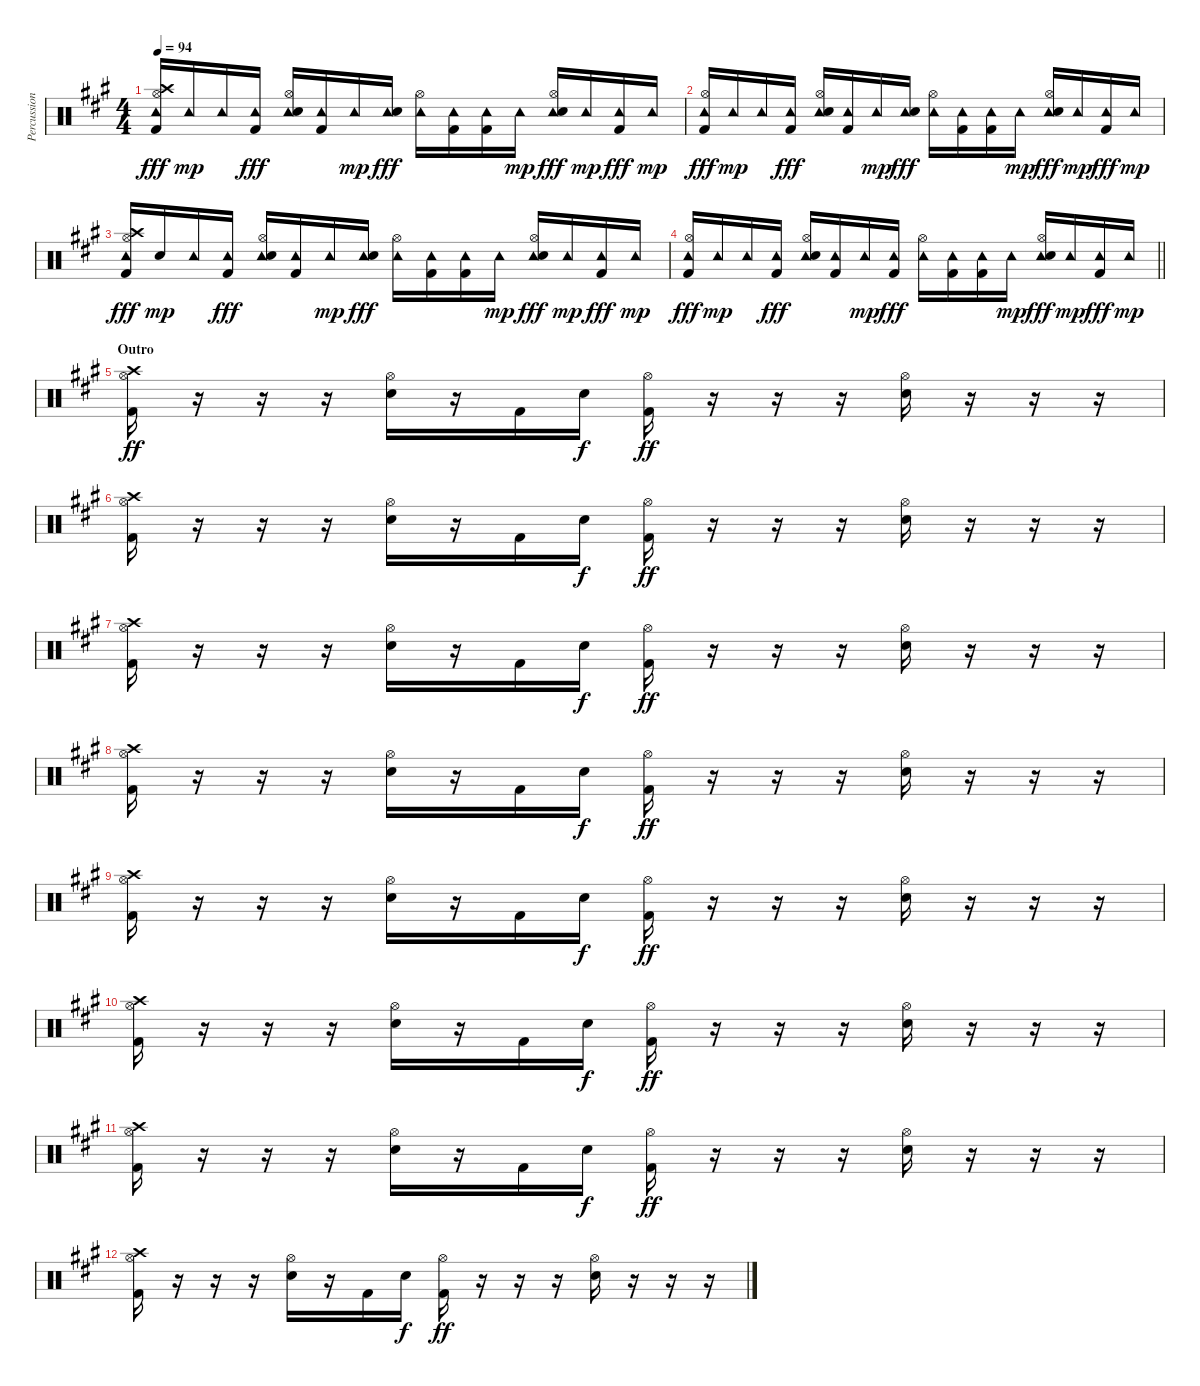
\track ("Percussion" "Percussion") {instrument percussion}
\staff {score}
\articulation defaults
\ts (4 4)
\tempo 94
\clef neutral
\ks a
("Tambourine (hit)" "Hi-Hat (open)" "Crash high (hit)" "Kick (hit) 2").16{dy fff} "Tambourine (hit)".16{dy mp} "Tambourine (hit)".16 ("Tambourine (hit)" "Kick (hit) 2").16{dy fff} ("Tambourine (hit)" "Hi-Hat (open)" "Snare (hit) 2").16 ("Tambourine (hit)" "Kick (hit) 2").16 "Tambourine (hit)".16{dy mp} ("Tambourine (hit)" "Snare (hit) 2").16{dy fff} ("Tambourine (hit)" "Hi-Hat (open)").16 ("Tambourine (hit)" "Kick (hit) 2").16 ("Tambourine (hit)" "Kick (hit) 2").16 "Tambourine (hit)".16{dy mp} ("Tambourine (hit)" "Hi-Hat (open)" "Snare (hit) 2").16{dy fff} "Tambourine (hit)".16{dy mp} ("Tambourine (hit)" "Kick (hit) 2").16{dy fff} "Tambourine (hit)".16{dy mp} |
("Tambourine (hit)" "Hi-Hat (open)" "Kick (hit) 2").16{dy fff} "Tambourine (hit)".16{dy mp} "Tambourine (hit)".16 ("Tambourine (hit)" "Kick (hit) 2").16{dy fff} ("Tambourine (hit)" "Hi-Hat (open)" "Snare (hit) 2").16 ("Tambourine (hit)" "Kick (hit) 2").16 "Tambourine (hit)".16{dy mp} ("Tambourine (hit)" "Snare (hit) 2").16{dy fff} ("Tambourine (hit)" "Hi-Hat (open)").16 ("Tambourine (hit)" "Kick (hit) 2").16 ("Tambourine (hit)" "Kick (hit) 2").16 "Tambourine (hit)".16{dy mp} ("Tambourine (hit)" "Hi-Hat (open)" "Snare (hit) 2").16{dy fff} "Tambourine (hit)".16{dy mp} ("Tambourine (hit)" "Kick (hit) 2").16{dy fff} "Tambourine (hit)".16{dy mp} |
("Tambourine (hit)" "Hi-Hat (open)" "Crash high (hit)" "Kick (hit) 2").16{dy fff} "Snare (hit)".16{dy mp} "Tambourine (hit)".16 ("Tambourine (hit)" "Kick (hit) 2").16{dy fff} ("Tambourine (hit)" "Hi-Hat (open)" "Snare (hit) 2").16 ("Tambourine (hit)" "Kick (hit) 2").16 "Tambourine (hit)".16{dy mp} ("Tambourine (hit)" "Snare (hit) 2").16{dy fff} ("Tambourine (hit)" "Hi-Hat (open)").16 ("Tambourine (hit)" "Kick (hit) 2").16 ("Tambourine (hit)" "Kick (hit) 2").16 "Tambourine (hit)".16{dy mp} ("Tambourine (hit)" "Hi-Hat (open)" "Snare (hit) 2").16{dy fff} "Tambourine (hit)".16{dy mp} ("Tambourine (hit)" "Kick (hit) 2").16{dy fff} "Tambourine (hit)".16{dy mp} |
\barLineRight lightlight
("Tambourine (hit)" "Hi-Hat (open)" "Kick (hit) 2").16{dy fff} "Tambourine (hit)".16{dy mp} "Tambourine (hit)".16 ("Tambourine (hit)" "Kick (hit) 2").16{dy fff} ("Tambourine (hit)" "Hi-Hat (open)" "Snare (hit) 2").16 ("Tambourine (hit)" "Kick (hit) 2").16 "Tambourine (hit)".16{dy mp} ("Tambourine (hit)" "Kick (hit) 2").16{dy fff} ("Tambourine (hit)" "Hi-Hat (open)").16 ("Tambourine (hit)" "Kick (hit) 2").16 ("Tambourine (hit)" "Kick (hit) 2").16 "Tambourine (hit)".16{dy mp} ("Tambourine (hit)" "Hi-Hat (open)" "Snare (hit) 2").16{dy fff} "Tambourine (hit)".16{dy mp} ("Tambourine (hit)" "Kick (hit) 2").16{dy fff} "Tambourine (hit)".16{dy mp} |
\section ("" "Outro")
("Crash high (hit)" "Hi-Hat (open)" "Kick (hit) 2").16{dy ff} r.16 r.16 r.16 ("Hi-Hat (open)" "Snare (hit) 2").16 r.16 "Kick (hit) 2".16 "Snare (hit) 2".16{dy f} ("Hi-Hat (open)" "Kick (hit) 2").16{dy ff} r.16 r.16 r.16 ("Hi-Hat (open)" "Snare (hit) 2").16 r.16 r.16 r.16 |
("Crash high (hit)" "Hi-Hat (open)" "Kick (hit) 2").16 r.16 r.16 r.16 ("Hi-Hat (open)" "Snare (hit) 2").16 r.16 "Kick (hit) 2".16 "Snare (hit) 2".16{dy f} ("Hi-Hat (open)" "Kick (hit) 2").16{dy ff} r.16 r.16 r.16 ("Hi-Hat (open)" "Snare (hit) 2").16 r.16 r.16 r.16 |
("Crash high (hit)" "Hi-Hat (open)" "Kick (hit) 2").16 r.16 r.16 r.16 ("Hi-Hat (open)" "Snare (hit) 2").16 r.16 "Kick (hit) 2".16 "Snare (hit) 2".16{dy f} ("Hi-Hat (open)" "Kick (hit) 2").16{dy ff} r.16 r.16 r.16 ("Hi-Hat (open)" "Snare (hit) 2").16 r.16 r.16 r.16 |
("Crash high (hit)" "Hi-Hat (open)" "Kick (hit) 2").16 r.16 r.16 r.16 ("Hi-Hat (open)" "Snare (hit) 2").16 r.16 "Kick (hit) 2".16 "Snare (hit) 2".16{dy f} ("Hi-Hat (open)" "Kick (hit) 2").16{dy ff} r.16 r.16 r.16 ("Hi-Hat (open)" "Snare (hit) 2").16 r.16 r.16 r.16 |
("Crash high (hit)" "Hi-Hat (open)" "Kick (hit) 2").16 r.16 r.16 r.16 ("Hi-Hat (open)" "Snare (hit) 2").16 r.16 "Kick (hit) 2".16 "Snare (hit) 2".16{dy f} ("Hi-Hat (open)" "Kick (hit) 2").16{dy ff} r.16 r.16 r.16 ("Hi-Hat (open)" "Snare (hit) 2").16 r.16 r.16 r.16 |
("Crash high (hit)" "Hi-Hat (open)" "Kick (hit) 2").16 r.16 r.16 r.16 ("Hi-Hat (open)" "Snare (hit) 2").16 r.16 "Kick (hit) 2".16 "Snare (hit) 2".16{dy f} ("Hi-Hat (open)" "Kick (hit) 2").16{dy ff} r.16 r.16 r.16 ("Hi-Hat (open)" "Snare (hit) 2").16 r.16 r.16 r.16 |
("Crash high (hit)" "Hi-Hat (open)" "Kick (hit) 2").16 r.16 r.16 r.16 ("Hi-Hat (open)" "Snare (hit) 2").16 r.16 "Kick (hit) 2".16 "Snare (hit) 2".16{dy f} ("Hi-Hat (open)" "Kick (hit) 2").16{dy ff} r.16 r.16 r.16 ("Hi-Hat (open)" "Snare (hit) 2").16 r.16 r.16 r.16 |
("Crash high (hit)" "Hi-Hat (open)" "Kick (hit) 2").16 r.16 r.16 r.16 ("Hi-Hat (open)" "Snare (hit) 2").16 r.16 "Kick (hit) 2".16 "Snare (hit) 2".16{dy f} ("Hi-Hat (open)" "Kick (hit) 2").16{dy ff} r.16 r.16 r.16 ("Hi-Hat (open)" "Snare (hit) 2").16 r.16 r.16 r.16
